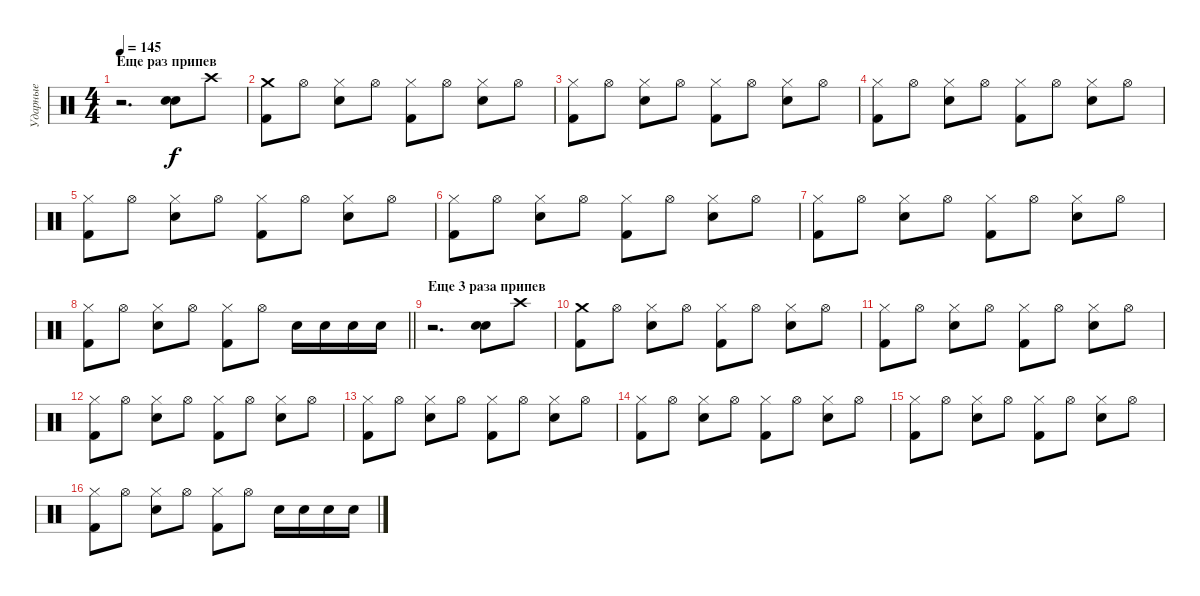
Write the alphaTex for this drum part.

\track ("Ударные" "Ударные") {instrument percussion}
\staff {score}
\articulation defaults
\ts (4 4)
\section ("" "Еще раз припев")
\tempo 145
\clef neutral
\ks c
r.2{d dy f} ("Snare (hit) 2" "Snare (hit) 2").8{bd 240} "Crash high (hit)".8 |
("Kick (hit) 2" "Crash medium (hit)").8 "Hi-Hat (open)".8 ("Hi-Hat (closed)" "Snare (hit) 2").8 "Hi-Hat (open)".8 ("Hi-Hat (closed)" "Kick (hit) 2").8 "Hi-Hat (open)".8 ("Hi-Hat (closed)" "Snare (hit) 2").8 "Hi-Hat (open)".8 |
("Hi-Hat (closed)" "Kick (hit) 2").8 "Hi-Hat (open)".8 ("Hi-Hat (closed)" "Snare (hit) 2").8 "Hi-Hat (open)".8 ("Hi-Hat (closed)" "Kick (hit) 2").8 "Hi-Hat (open)".8 ("Hi-Hat (closed)" "Snare (hit) 2").8 "Hi-Hat (open)".8 |
("Hi-Hat (closed)" "Kick (hit) 2").8 "Hi-Hat (open)".8 ("Hi-Hat (closed)" "Snare (hit) 2").8 "Hi-Hat (open)".8 ("Hi-Hat (closed)" "Kick (hit) 2").8 "Hi-Hat (open)".8 ("Hi-Hat (closed)" "Snare (hit) 2").8 "Hi-Hat (open)".8 |
("Hi-Hat (closed)" "Kick (hit) 2").8 "Hi-Hat (open)".8 ("Hi-Hat (closed)" "Snare (hit) 2").8 "Hi-Hat (open)".8 ("Hi-Hat (closed)" "Kick (hit) 2").8 "Hi-Hat (open)".8 ("Hi-Hat (closed)" "Snare (hit) 2").8 "Hi-Hat (open)".8 |
("Hi-Hat (closed)" "Kick (hit) 2").8 "Hi-Hat (open)".8 ("Hi-Hat (closed)" "Snare (hit) 2").8 "Hi-Hat (open)".8 ("Hi-Hat (closed)" "Kick (hit) 2").8 "Hi-Hat (open)".8 ("Hi-Hat (closed)" "Snare (hit) 2").8 "Hi-Hat (open)".8 |
("Hi-Hat (closed)" "Kick (hit) 2").8 "Hi-Hat (open)".8 ("Hi-Hat (closed)" "Snare (hit) 2").8 "Hi-Hat (open)".8 ("Hi-Hat (closed)" "Kick (hit) 2").8 "Hi-Hat (open)".8 ("Hi-Hat (closed)" "Snare (hit) 2").8 "Hi-Hat (open)".8 |
\barLineRight lightlight
("Hi-Hat (closed)" "Kick (hit) 2").8 "Hi-Hat (open)".8 ("Hi-Hat (closed)" "Snare (hit) 2").8 "Hi-Hat (open)".8 ("Hi-Hat (closed)" "Kick (hit) 2").8 "Hi-Hat (open)".8 "Snare (hit) 2".16 "Snare (hit) 2".16 "Snare (hit) 2".16 "Snare (hit) 2".16 |
\section ("" "Еще 3 раза припев")
r.2{d} ("Snare (hit) 2" "Snare (hit) 2").8{bd 240} "Crash high (hit)".8 |
("Kick (hit) 2" "Crash medium (hit)").8 "Hi-Hat (open)".8 ("Hi-Hat (closed)" "Snare (hit) 2").8 "Hi-Hat (open)".8 ("Hi-Hat (closed)" "Kick (hit) 2").8 "Hi-Hat (open)".8 ("Hi-Hat (closed)" "Snare (hit) 2").8 "Hi-Hat (open)".8 |
("Hi-Hat (closed)" "Kick (hit) 2").8 "Hi-Hat (open)".8 ("Hi-Hat (closed)" "Snare (hit) 2").8 "Hi-Hat (open)".8 ("Hi-Hat (closed)" "Kick (hit) 2").8 "Hi-Hat (open)".8 ("Hi-Hat (closed)" "Snare (hit) 2").8 "Hi-Hat (open)".8 |
("Hi-Hat (closed)" "Kick (hit) 2").8 "Hi-Hat (open)".8 ("Hi-Hat (closed)" "Snare (hit) 2").8 "Hi-Hat (open)".8 ("Hi-Hat (closed)" "Kick (hit) 2").8 "Hi-Hat (open)".8 ("Hi-Hat (closed)" "Snare (hit) 2").8 "Hi-Hat (open)".8 |
("Hi-Hat (closed)" "Kick (hit) 2").8 "Hi-Hat (open)".8 ("Hi-Hat (closed)" "Snare (hit) 2").8 "Hi-Hat (open)".8 ("Hi-Hat (closed)" "Kick (hit) 2").8 "Hi-Hat (open)".8 ("Hi-Hat (closed)" "Snare (hit) 2").8 "Hi-Hat (open)".8 |
("Hi-Hat (closed)" "Kick (hit) 2").8 "Hi-Hat (open)".8 ("Hi-Hat (closed)" "Snare (hit) 2").8 "Hi-Hat (open)".8 ("Hi-Hat (closed)" "Kick (hit) 2").8 "Hi-Hat (open)".8 ("Hi-Hat (closed)" "Snare (hit) 2").8 "Hi-Hat (open)".8 |
("Hi-Hat (closed)" "Kick (hit) 2").8 "Hi-Hat (open)".8 ("Hi-Hat (closed)" "Snare (hit) 2").8 "Hi-Hat (open)".8 ("Hi-Hat (closed)" "Kick (hit) 2").8 "Hi-Hat (open)".8 ("Hi-Hat (closed)" "Snare (hit) 2").8 "Hi-Hat (open)".8 |
("Hi-Hat (closed)" "Kick (hit) 2").8 "Hi-Hat (open)".8 ("Hi-Hat (closed)" "Snare (hit) 2").8 "Hi-Hat (open)".8 ("Hi-Hat (closed)" "Kick (hit) 2").8 "Hi-Hat (open)".8 "Snare (hit) 2".16 "Snare (hit) 2".16 "Snare (hit) 2".16 "Snare (hit) 2".16
